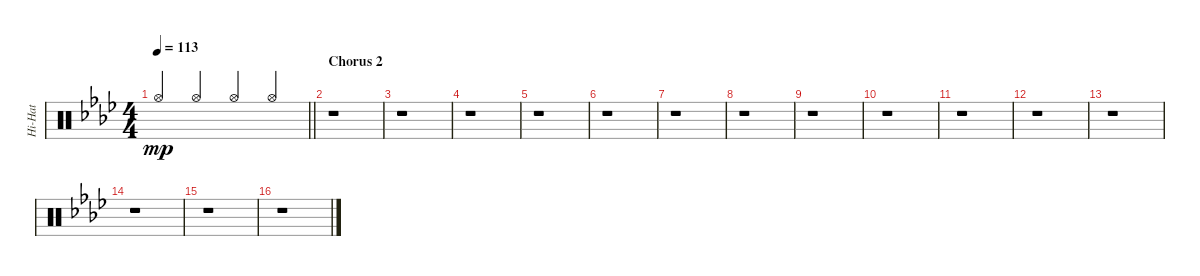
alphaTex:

\track ("Hi-Hat" "Hi-Hat") {instrument percussion}
\staff {score}
\articulation defaults
\ts (4 4)
\tempo 113
\clef neutral
\barLineRight lightlight
\ks fminor "Hi-Hat (open)".4{dy mp beam Up} "Hi-Hat (open)".4{beam Up} "Hi-Hat (open)".4{beam Up} "Hi-Hat (open)".4{beam Up}
|
\section ("" "Chorus 2")
r.1 |
r.1 |
r.1 |
r.1 |
r.1 |
r.1 |
r.1 |
r.1 |
r.1 |
r.1 |
r.1 |
r.1 |
r.1 |
r.1 |
r.1
